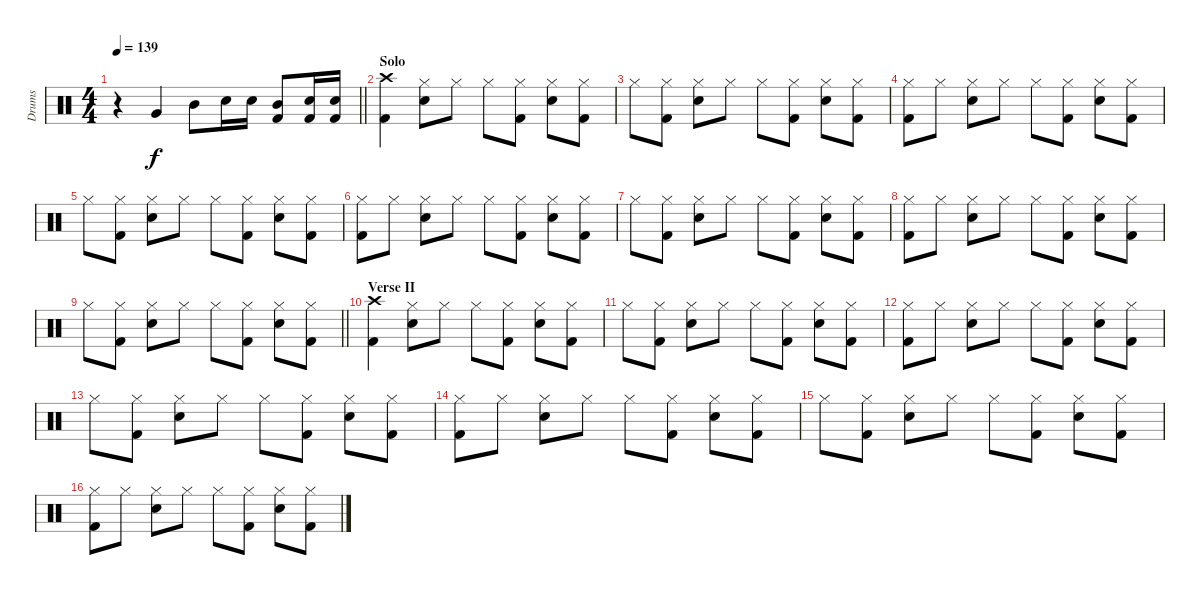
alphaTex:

\track ("Drums" "Drums") {instrument percussion}
\staff {score}
\articulation defaults
\ts (4 4)
\tempo 139
\clef neutral
\barLineRight lightlight
\ks c
r.4{dy f} "Very Low Tom (hit)".4 "Mid Tom (hit)".8 "Snare (hit) 2".16 "Snare (hit) 2".16 ("Mid Tom (hit)" "Kick (hit) 2").8 ("Snare (hit) 2" "Kick (hit) 2").16 ("Snare (hit) 2" "Kick (hit) 2").16 |
\section ("" "Solo")
("Crash high (hit)" "Kick (hit) 2").4 ("Hi-Hat (closed)" "Snare (hit) 2").8 "Hi-Hat (closed)".8 "Hi-Hat (closed)".8 ("Hi-Hat (closed)" "Kick (hit) 2").8 ("Hi-Hat (closed)" "Snare (hit) 2").8 ("Hi-Hat (closed)" "Kick (hit) 2").8 |
"Hi-Hat (closed)".8 ("Hi-Hat (closed)" "Kick (hit) 2").8 ("Hi-Hat (closed)" "Snare (hit) 2").8 "Hi-Hat (closed)".8 "Hi-Hat (closed)".8 ("Hi-Hat (closed)" "Kick (hit) 2").8 ("Hi-Hat (closed)" "Snare (hit) 2").8 ("Hi-Hat (closed)" "Kick (hit) 2").8 |
("Hi-Hat (closed)" "Kick (hit) 2").8 "Hi-Hat (closed)".8 ("Hi-Hat (closed)" "Snare (hit) 2").8 "Hi-Hat (closed)".8 "Hi-Hat (closed)".8 ("Hi-Hat (closed)" "Kick (hit) 2").8 ("Hi-Hat (closed)" "Snare (hit) 2").8 ("Hi-Hat (closed)" "Kick (hit) 2").8 |
"Hi-Hat (closed)".8 ("Hi-Hat (closed)" "Kick (hit) 2").8 ("Hi-Hat (closed)" "Snare (hit) 2").8 "Hi-Hat (closed)".8 "Hi-Hat (closed)".8 ("Hi-Hat (closed)" "Kick (hit) 2").8 ("Hi-Hat (closed)" "Snare (hit) 2").8 ("Hi-Hat (closed)" "Kick (hit) 2").8 |
("Hi-Hat (closed)" "Kick (hit) 2").8 "Hi-Hat (closed)".8 ("Hi-Hat (closed)" "Snare (hit) 2").8 "Hi-Hat (closed)".8 "Hi-Hat (closed)".8 ("Hi-Hat (closed)" "Kick (hit) 2").8 ("Hi-Hat (closed)" "Snare (hit) 2").8 ("Hi-Hat (closed)" "Kick (hit) 2").8 |
"Hi-Hat (closed)".8 ("Hi-Hat (closed)" "Kick (hit) 2").8 ("Hi-Hat (closed)" "Snare (hit) 2").8 "Hi-Hat (closed)".8 "Hi-Hat (closed)".8 ("Hi-Hat (closed)" "Kick (hit) 2").8 ("Hi-Hat (closed)" "Snare (hit) 2").8 ("Hi-Hat (closed)" "Kick (hit) 2").8 |
("Hi-Hat (closed)" "Kick (hit) 2").8 "Hi-Hat (closed)".8 ("Hi-Hat (closed)" "Snare (hit) 2").8 "Hi-Hat (closed)".8 "Hi-Hat (closed)".8 ("Hi-Hat (closed)" "Kick (hit) 2").8 ("Hi-Hat (closed)" "Snare (hit) 2").8 ("Hi-Hat (closed)" "Kick (hit) 2").8 |
\barLineRight lightlight "Hi-Hat (closed)".8
("Hi-Hat (closed)" "Kick (hit) 2").8 ("Hi-Hat (closed)" "Snare (hit) 2").8 "Hi-Hat (closed)".8 "Hi-Hat (closed)".8 ("Hi-Hat (closed)" "Kick (hit) 2").8 ("Hi-Hat (closed)" "Snare (hit) 2").8 ("Hi-Hat (closed)" "Kick (hit) 2").8 |
\section ("" "Verse II")
("Crash high (hit)" "Kick (hit) 2").4 ("Hi-Hat (closed)" "Snare (hit) 2").8 "Hi-Hat (closed)".8 "Hi-Hat (closed)".8 ("Hi-Hat (closed)" "Kick (hit) 2").8 ("Hi-Hat (closed)" "Snare (hit) 2").8 ("Hi-Hat (closed)" "Kick (hit) 2").8 |
"Hi-Hat (closed)".8 ("Hi-Hat (closed)" "Kick (hit) 2").8 ("Hi-Hat (closed)" "Snare (hit) 2").8 "Hi-Hat (closed)".8 "Hi-Hat (closed)".8 ("Hi-Hat (closed)" "Kick (hit) 2").8 ("Hi-Hat (closed)" "Snare (hit) 2").8 ("Hi-Hat (closed)" "Kick (hit) 2").8 |
("Hi-Hat (closed)" "Kick (hit) 2").8 "Hi-Hat (closed)".8 ("Hi-Hat (closed)" "Snare (hit) 2").8 "Hi-Hat (closed)".8 "Hi-Hat (closed)".8 ("Hi-Hat (closed)" "Kick (hit) 2").8 ("Hi-Hat (closed)" "Snare (hit) 2").8 ("Hi-Hat (closed)" "Kick (hit) 2").8 |
"Hi-Hat (closed)".8 ("Hi-Hat (closed)" "Kick (hit) 2").8 ("Hi-Hat (closed)" "Snare (hit) 2").8 "Hi-Hat (closed)".8 "Hi-Hat (closed)".8 ("Hi-Hat (closed)" "Kick (hit) 2").8 ("Hi-Hat (closed)" "Snare (hit) 2").8 ("Hi-Hat (closed)" "Kick (hit) 2").8 |
("Hi-Hat (closed)" "Kick (hit) 2").8 "Hi-Hat (closed)".8 ("Hi-Hat (closed)" "Snare (hit) 2").8 "Hi-Hat (closed)".8 "Hi-Hat (closed)".8 ("Hi-Hat (closed)" "Kick (hit) 2").8 ("Hi-Hat (closed)" "Snare (hit) 2").8 ("Hi-Hat (closed)" "Kick (hit) 2").8 |
"Hi-Hat (closed)".8 ("Hi-Hat (closed)" "Kick (hit) 2").8 ("Hi-Hat (closed)" "Snare (hit) 2").8 "Hi-Hat (closed)".8 "Hi-Hat (closed)".8 ("Hi-Hat (closed)" "Kick (hit) 2").8 ("Hi-Hat (closed)" "Snare (hit) 2").8 ("Hi-Hat (closed)" "Kick (hit) 2").8 |
("Hi-Hat (closed)" "Kick (hit) 2").8 "Hi-Hat (closed)".8 ("Hi-Hat (closed)" "Snare (hit) 2").8 "Hi-Hat (closed)".8 "Hi-Hat (closed)".8 ("Hi-Hat (closed)" "Kick (hit) 2").8 ("Hi-Hat (closed)" "Snare (hit) 2").8 ("Hi-Hat (closed)" "Kick (hit) 2").8
